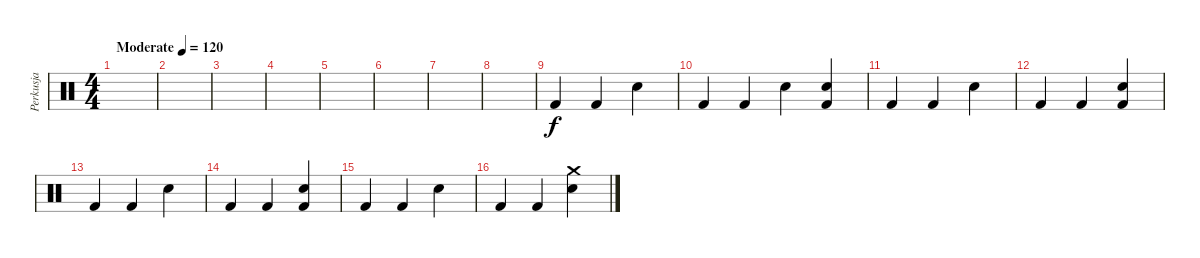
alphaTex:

\track ("Perkusja" "Perkusja") {instrument percussion}
\staff {score}
\articulation defaults
\ts (4 4)
\tempo (120 "Moderate")
\clef neutral
\ks c
|
|
|
|
|
|
|
|
"Kick (hit) 2".4 "Kick (hit) 2".4 "Snare (hit) 2".4 |
"Kick (hit) 2".4 "Kick (hit) 2".4 "Snare (hit) 2".4 ("Kick (hit) 2" "Snare (hit) 2").4 |
"Kick (hit) 2".4 "Kick (hit) 2".4 "Snare (hit) 2".4 |
"Kick (hit) 2".4 "Kick (hit) 2".4 ("Snare (hit) 2" "Kick (hit) 2").4 |
"Kick (hit) 2".4 "Kick (hit) 2".4 "Snare (hit) 2".4 |
"Kick (hit) 2".4 "Kick (hit) 2".4 ("Snare (hit) 2" "Kick (hit) 2").4 |
"Kick (hit) 2".4 "Kick (hit) 2".4 "Snare (hit) 2".4 |
"Kick (hit) 2".4 "Kick (hit) 2".4 ("Snare (hit) 2" "Crash medium (hit)").4
